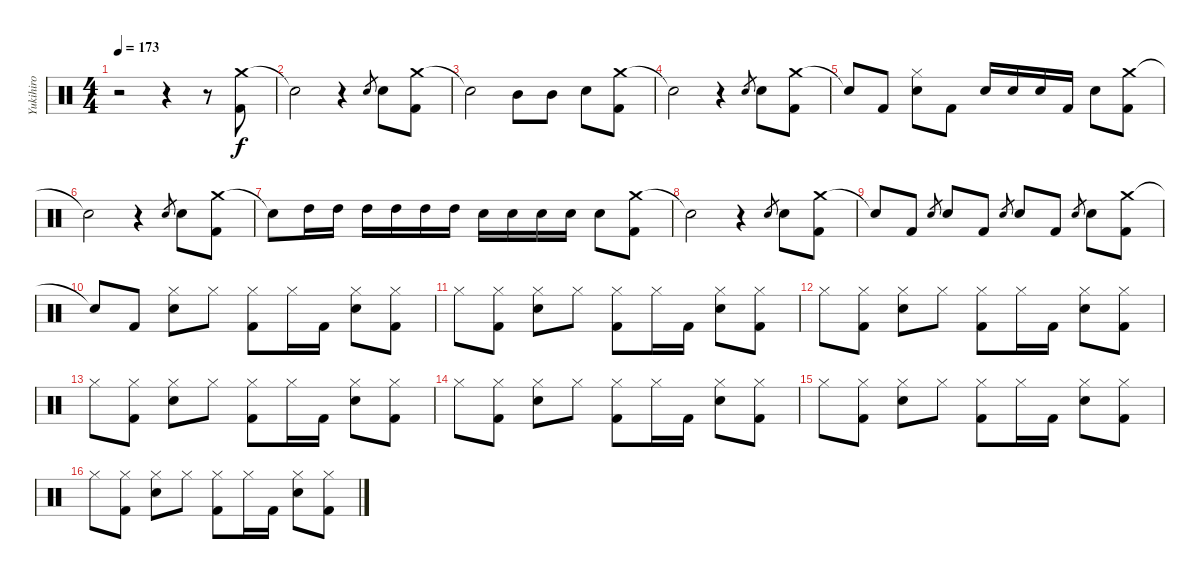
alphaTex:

\track ("Yukihiro" "Yukihiro") {instrument percussion}
\staff {score}
\articulation defaults
\ts (4 4)
\tempo 173
\clef neutral
\ks c
r.2{dy f} r.4 r.8 ("Crash medium (hit)" "Kick (hit) 2").8 |
"Snare (hit)"{t}.2 r.4 "Snare (hit) 2".8{gr} "Snare (hit) 2".8 ("Crash medium (hit)" "Kick (hit) 2").8 |
"Snare (hit)"{t}.2 "Mid Tom (hit)".8 "Mid Tom (hit)".8 "Snare (hit) 2".8 ("Crash medium (hit)" "Kick (hit) 2").8 |
"Snare (hit)"{t}.2 r.4 "Snare (hit) 2".8{gr} "Snare (hit) 2".8 ("Crash medium (hit)" "Kick (hit) 2").8 |
"Snare (hit)"{t}.8 "Kick (hit) 2".8 ("Hi-Hat (closed)" "Snare (hit) 2").8 "Kick (hit) 2".8 "Snare (hit) 2".16 "Snare (hit) 2".16 "Snare (hit) 2".16 "Kick (hit) 2".16 "Snare (hit) 2".8 ("Crash medium (hit)" "Kick (hit) 2").8 |
"Snare (hit)"{t}.2 r.4 "Snare (hit) 2".8{gr} "Snare (hit) 2".8 ("Crash medium (hit)" "Kick (hit) 2").8 |
"Snare (hit)"{t}.8 "High Tom (hit)".16 "High Tom (hit)".16 "High Tom (hit)".16 "High Tom (hit)".16 "High Tom (hit)".16 "High Tom (hit)".16 "Snare (hit) 2".16 "Snare (hit) 2".16 "Snare (hit) 2".16 "Snare (hit) 2".16 "Snare (hit) 2".8 ("Crash medium (hit)" "Kick (hit) 2").8 |
"Snare (hit)"{t}.2 r.4 "Snare (hit) 2".8{gr} "Snare (hit) 2".8 ("Crash medium (hit)" "Kick (hit) 2").8 |
"Snare (hit)"{t}.8 "Kick (hit) 2".8 "Snare (hit) 2".8{gr} "Snare (hit) 2".8 "Kick (hit) 2".8 "Snare (hit) 2".8{gr} "Snare (hit) 2".8 "Kick (hit) 2".8 "Snare (hit) 2".8{gr} "Snare (hit) 2".8 ("Crash medium (hit)" "Kick (hit) 2").8 |
"Snare (hit)"{t}.8 "Kick (hit) 2".8 ("Hi-Hat (closed)" "Snare (hit) 2").8 "Hi-Hat (closed)".8 ("Hi-Hat (closed)" "Kick (hit) 2").8 "Hi-Hat (closed)".16 "Kick (hit) 2".16 ("Hi-Hat (closed)" "Snare (hit) 2").8 ("Hi-Hat (closed)" "Kick (hit) 2").8 |
"Hi-Hat (closed)".8 ("Hi-Hat (closed)" "Kick (hit) 2").8 ("Hi-Hat (closed)" "Snare (hit) 2").8 "Hi-Hat (closed)".8 ("Hi-Hat (closed)" "Kick (hit) 2").8 "Hi-Hat (closed)".16 "Kick (hit) 2".16 ("Hi-Hat (closed)" "Snare (hit) 2").8 ("Hi-Hat (closed)" "Kick (hit) 2").8 |
"Hi-Hat (closed)".8 ("Hi-Hat (closed)" "Kick (hit) 2").8 ("Hi-Hat (closed)" "Snare (hit) 2").8 "Hi-Hat (closed)".8 ("Hi-Hat (closed)" "Kick (hit) 2").8 "Hi-Hat (closed)".16 "Kick (hit) 2".16 ("Hi-Hat (closed)" "Snare (hit) 2").8 ("Hi-Hat (closed)" "Kick (hit) 2").8 |
"Hi-Hat (closed)".8 ("Hi-Hat (closed)" "Kick (hit) 2").8 ("Hi-Hat (closed)" "Snare (hit) 2").8 "Hi-Hat (closed)".8 ("Hi-Hat (closed)" "Kick (hit) 2").8 "Hi-Hat (closed)".16 "Kick (hit) 2".16 ("Hi-Hat (closed)" "Snare (hit) 2").8 ("Hi-Hat (closed)" "Kick (hit) 2").8 |
"Hi-Hat (closed)".8 ("Hi-Hat (closed)" "Kick (hit) 2").8 ("Hi-Hat (closed)" "Snare (hit) 2").8 "Hi-Hat (closed)".8 ("Hi-Hat (closed)" "Kick (hit) 2").8 "Hi-Hat (closed)".16 "Kick (hit) 2".16 ("Hi-Hat (closed)" "Snare (hit) 2").8 ("Hi-Hat (closed)" "Kick (hit) 2").8 |
"Hi-Hat (closed)".8 ("Hi-Hat (closed)" "Kick (hit) 2").8 ("Hi-Hat (closed)" "Snare (hit) 2").8 "Hi-Hat (closed)".8 ("Hi-Hat (closed)" "Kick (hit) 2").8 "Hi-Hat (closed)".16 "Kick (hit) 2".16 ("Hi-Hat (closed)" "Snare (hit) 2").8 ("Hi-Hat (closed)" "Kick (hit) 2").8 |
"Hi-Hat (closed)".8 ("Hi-Hat (closed)" "Kick (hit) 2").8 ("Hi-Hat (closed)" "Snare (hit) 2").8 "Hi-Hat (closed)".8 ("Hi-Hat (closed)" "Kick (hit) 2").8 "Hi-Hat (closed)".16 "Kick (hit) 2".16 ("Hi-Hat (closed)" "Snare (hit) 2").8 ("Hi-Hat (closed)" "Kick (hit) 2").8
